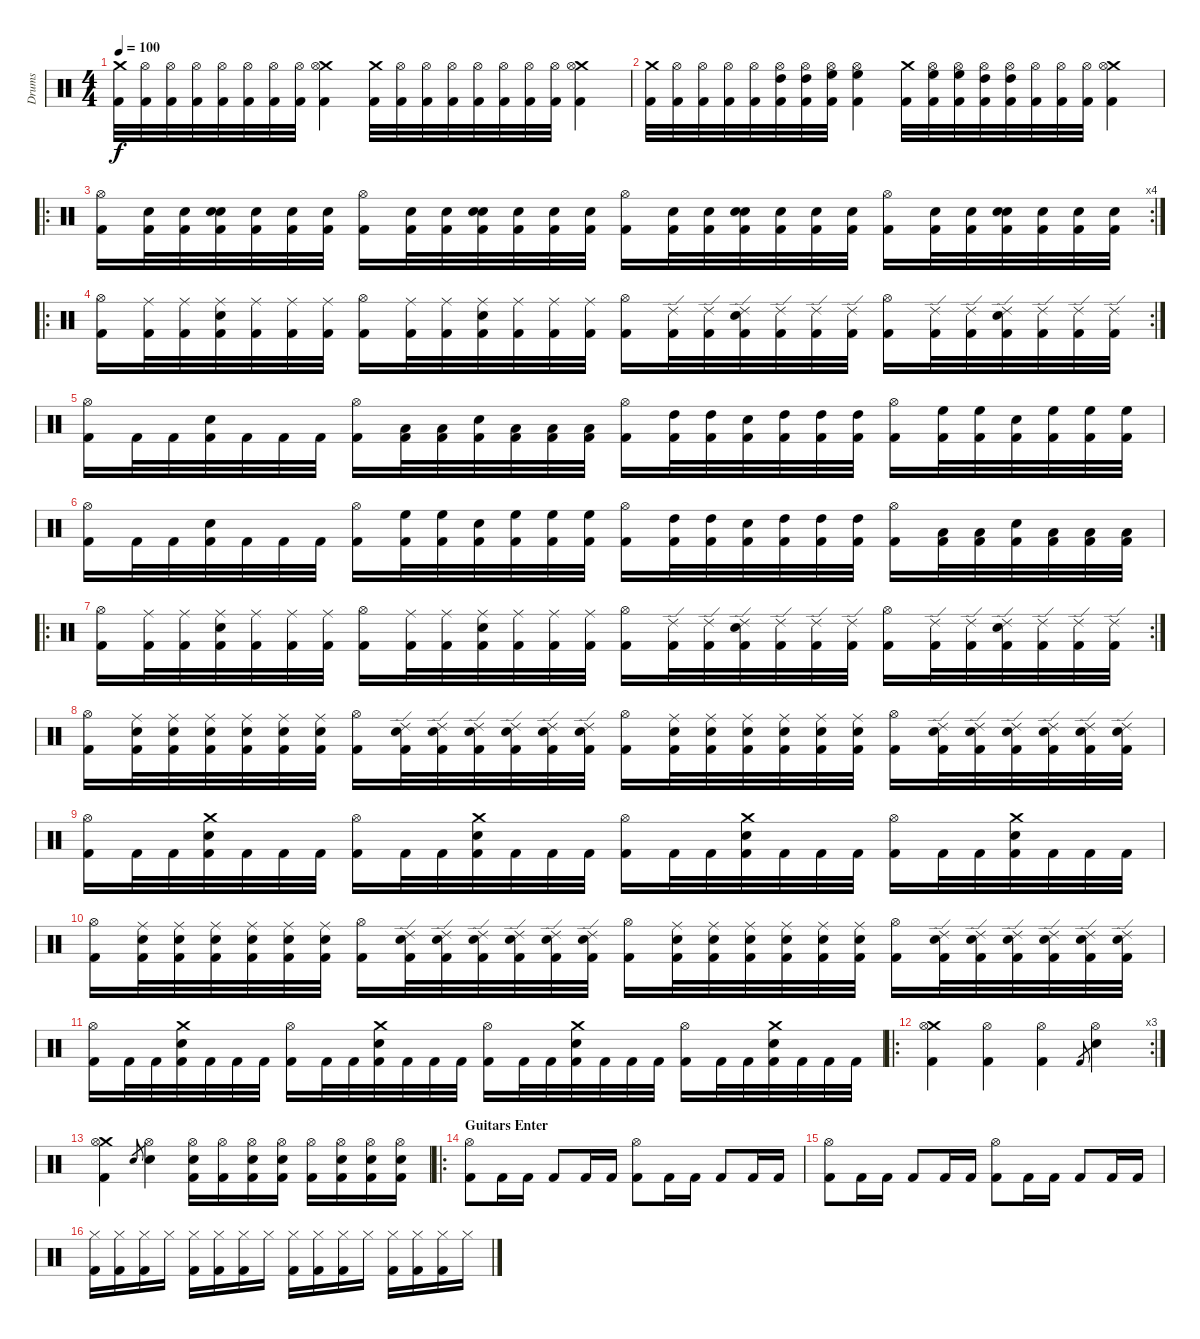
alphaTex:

\track ("Drums" "Drums") {instrument percussion}
\staff {score}
\articulation defaults
\ts (4 4)
\tempo 100
\clef neutral
\ks c
("Crash medium (hit)" "Kick (hit) 2").32{dy f} ("Hi-Hat (open)" "Kick (hit) 2").32 ("Hi-Hat (open)" "Kick (hit) 2").32 ("Hi-Hat (open)" "Kick (hit) 2").32 ("Hi-Hat (open)" "Kick (hit) 2").32 ("Hi-Hat (open)" "Kick (hit) 2").32 ("Hi-Hat (open)" "Kick (hit) 2").32 ("Hi-Hat (open)" "Kick (hit) 2").32 ("Crash medium (hit)" "Hi-Hat (open)" "Kick (hit) 2").4 ("Crash medium (hit)" "Kick (hit) 2").32 ("Hi-Hat (open)" "Kick (hit) 2").32 ("Hi-Hat (open)" "Kick (hit) 2").32 ("Hi-Hat (open)" "Kick (hit) 2").32 ("Hi-Hat (open)" "Kick (hit) 2").32 ("Hi-Hat (open)" "Kick (hit) 2").32 ("Hi-Hat (open)" "Kick (hit) 2").32 ("Hi-Hat (open)" "Kick (hit) 2").32 ("Crash medium (hit)" "Hi-Hat (open)" "Kick (hit) 2").4 |
("Crash medium (hit)" "Kick (hit) 2").32 ("Hi-Hat (open)" "Kick (hit) 2").32 ("Hi-Hat (open)" "Kick (hit) 2").32 ("Hi-Hat (open)" "Kick (hit) 2").32 ("Hi-Hat (open)" "Kick (hit) 2").32 ("Hi-Hat (open)" "High Tom (hit)" "Kick (hit) 2").32 ("Hi-Hat (open)" "High Tom (hit)" "Kick (hit) 2").32 ("Hi-Hat (open)" "High Floor Tom (hit)" "Kick (hit) 2").32 ("Hi-Hat (open)" "High Floor Tom (hit)" "Kick (hit) 2").4 ("Crash medium (hit)" "Kick (hit) 2").32 ("Hi-Hat (open)" "High Floor Tom (hit)" "Kick (hit) 2").32 ("Hi-Hat (open)" "High Floor Tom (hit)" "Kick (hit) 2").32 ("Hi-Hat (open)" "High Tom (hit)" "Kick (hit) 2").32 ("Hi-Hat (open)" "High Tom (hit)" "Kick (hit) 2").32 ("Hi-Hat (open)" "Kick (hit) 2").32 ("Hi-Hat (open)" "Kick (hit) 2").32 ("Hi-Hat (open)" "Kick (hit) 2").32 ("Crash medium (hit)" "Hi-Hat (open)" "Kick (hit) 2").4 |
\ro
\rc 4
("Hi-Hat (open)" "Kick (hit) 2").16 ("Electric Snare (hit)" "Kick (hit) 2").32 ("Electric Snare (hit)" "Kick (hit) 2").32 ("Electric Snare (hit)" "Snare (hit) 2" "Kick (hit) 2").32 ("Electric Snare (hit)" "Kick (hit) 2").32 ("Electric Snare (hit)" "Kick (hit) 2").32 ("Electric Snare (hit)" "Kick (hit) 2").32 ("Hi-Hat (open)" "Kick (hit) 2").16 ("Electric Snare (hit)" "Kick (hit) 2").32 ("Electric Snare (hit)" "Kick (hit) 2").32 ("Electric Snare (hit)" "Snare (hit) 2" "Kick (hit) 2").32 ("Electric Snare (hit)" "Kick (hit) 2").32 ("Electric Snare (hit)" "Kick (hit) 2").32 ("Electric Snare (hit)" "Kick (hit) 2").32 ("Hi-Hat (open)" "Kick (hit) 2").16 ("Electric Snare (hit)" "Kick (hit) 2").32 ("Electric Snare (hit)" "Kick (hit) 2").32 ("Electric Snare (hit)" "Snare (hit) 2" "Kick (hit) 2").32 ("Electric Snare (hit)" "Kick (hit) 2").32 ("Electric Snare (hit)" "Kick (hit) 2").32 ("Electric Snare (hit)" "Kick (hit) 2").32 ("Hi-Hat (open)" "Kick (hit) 2").16 ("Electric Snare (hit)" "Kick (hit) 2").32 ("Electric Snare (hit)" "Kick (hit) 2").32 ("Electric Snare (hit)" "Snare (hit) 2" "Kick (hit) 2").32 ("Electric Snare (hit)" "Kick (hit) 2").32 ("Electric Snare (hit)" "Kick (hit) 2").32 ("Electric Snare (hit)" "Kick (hit) 2").32 |
\ro
\rc 2
("Hi-Hat (open)" "Kick (hit) 2").16 ("Ride (middle)" "Kick (hit) 2").32 ("Ride (middle)" "Kick (hit) 2").32 ("Ride (middle)" "Snare (hit) 2" "Kick (hit) 2").32 ("Ride (middle)" "Kick (hit) 2").32 ("Ride (middle)" "Kick (hit) 2").32 ("Ride (middle)" "Kick (hit) 2").32 ("Hi-Hat (open)" "Kick (hit) 2").16 ("Ride (middle)" "Kick (hit) 2").32 ("Ride (middle)" "Kick (hit) 2").32 ("Ride (middle)" "Snare (hit) 2" "Kick (hit) 2").32 ("Ride (middle)" "Kick (hit) 2").32 ("Ride (middle)" "Kick (hit) 2").32 ("Ride (middle)" "Kick (hit) 2").32 ("Hi-Hat (open)" "Kick (hit) 2").16 ("Ride (edge) 2" "Kick (hit) 2").32 ("Ride (edge) 2" "Kick (hit) 2").32 ("Ride (edge) 2" "Snare (hit) 2" "Kick (hit) 2").32 ("Ride (edge) 2" "Kick (hit) 2").32 ("Ride (edge) 2" "Kick (hit) 2").32 ("Ride (edge) 2" "Kick (hit) 2").32 ("Hi-Hat (open)" "Kick (hit) 2").16 ("Ride (edge) 2" "Kick (hit) 2").32 ("Ride (edge) 2" "Kick (hit) 2").32 ("Ride (edge) 2" "Snare (hit) 2" "Kick (hit) 2").32 ("Ride (edge) 2" "Kick (hit) 2").32 ("Ride (edge) 2" "Kick (hit) 2").32 ("Ride (edge) 2" "Kick (hit) 2").32 |
("Hi-Hat (open)" "Kick (hit) 2").16 "Kick (hit) 2".32 "Kick (hit) 2".32 ("Snare (hit) 2" "Kick (hit) 2").32 "Kick (hit) 2".32 "Kick (hit) 2".32 "Kick (hit) 2".32 ("Hi-Hat (open)" "Kick (hit) 2").16 ("Low Tom (hit)" "Kick (hit) 2").32 ("Low Tom (hit)" "Kick (hit) 2").32 ("Snare (hit) 2" "Kick (hit) 2").32 ("Low Tom (hit)" "Kick (hit) 2").32 ("Low Tom (hit)" "Kick (hit) 2").32 ("Low Tom (hit)" "Kick (hit) 2").32 ("Hi-Hat (open)" "Kick (hit) 2").16 ("High Tom (hit)" "Kick (hit) 2").32 ("High Tom (hit)" "Kick (hit) 2").32 ("Snare (hit) 2" "Kick (hit) 2").32 ("High Tom (hit)" "Kick (hit) 2").32 ("High Tom (hit)" "Kick (hit) 2").32 ("High Tom (hit)" "Kick (hit) 2").32 ("Hi-Hat (open)" "Kick (hit) 2").16 ("High Floor Tom (hit)" "Kick (hit) 2").32 ("High Floor Tom (hit)" "Kick (hit) 2").32 ("Snare (hit) 2" "Kick (hit) 2").32 ("High Floor Tom (hit)" "Kick (hit) 2").32 ("High Floor Tom (hit)" "Kick (hit) 2").32 ("High Floor Tom (hit)" "Kick (hit) 2").32 |
("Hi-Hat (open)" "Kick (hit) 2").16 "Kick (hit) 2".32 "Kick (hit) 2".32 ("Snare (hit) 2" "Kick (hit) 2").32 "Kick (hit) 2".32 "Kick (hit) 2".32 "Kick (hit) 2".32 ("Hi-Hat (open)" "Kick (hit) 2").16 ("High Floor Tom (hit)" "Kick (hit) 2").32 ("High Floor Tom (hit)" "Kick (hit) 2").32 ("Snare (hit) 2" "Kick (hit) 2").32 ("High Floor Tom (hit)" "Kick (hit) 2").32 ("High Floor Tom (hit)" "Kick (hit) 2").32 ("High Floor Tom (hit)" "Kick (hit) 2").32 ("Hi-Hat (open)" "Kick (hit) 2").16 ("High Tom (hit)" "Kick (hit) 2").32 ("High Tom (hit)" "Kick (hit) 2").32 ("Snare (hit) 2" "Kick (hit) 2").32 ("High Tom (hit)" "Kick (hit) 2").32 ("High Tom (hit)" "Kick (hit) 2").32 ("High Tom (hit)" "Kick (hit) 2").32 ("Hi-Hat (open)" "Kick (hit) 2").16 ("Low Tom (hit)" "Kick (hit) 2").32 ("Low Tom (hit)" "Kick (hit) 2").32 ("Snare (hit) 2" "Kick (hit) 2").32 ("Low Tom (hit)" "Kick (hit) 2").32 ("Low Tom (hit)" "Kick (hit) 2").32 ("Low Tom (hit)" "Kick (hit) 2").32 |
\ro
\rc 2
("Hi-Hat (open)" "Kick (hit) 2").16 ("Ride (middle)" "Kick (hit) 2").32 ("Ride (middle)" "Kick (hit) 2").32 ("Ride (middle)" "Snare (hit) 2" "Kick (hit) 2").32 ("Ride (middle)" "Kick (hit) 2").32 ("Ride (middle)" "Kick (hit) 2").32 ("Ride (middle)" "Kick (hit) 2").32 ("Hi-Hat (open)" "Kick (hit) 2").16 ("Ride (middle)" "Kick (hit) 2").32 ("Ride (middle)" "Kick (hit) 2").32 ("Ride (middle)" "Snare (hit) 2" "Kick (hit) 2").32 ("Ride (middle)" "Kick (hit) 2").32 ("Ride (middle)" "Kick (hit) 2").32 ("Ride (middle)" "Kick (hit) 2").32 ("Hi-Hat (open)" "Kick (hit) 2").16 ("Ride (edge) 2" "Kick (hit) 2").32 ("Ride (edge) 2" "Kick (hit) 2").32 ("Ride (edge) 2" "Snare (hit) 2" "Kick (hit) 2").32 ("Ride (edge) 2" "Kick (hit) 2").32 ("Ride (edge) 2" "Kick (hit) 2").32 ("Ride (edge) 2" "Kick (hit) 2").32 ("Hi-Hat (open)" "Kick (hit) 2").16 ("Ride (edge) 2" "Kick (hit) 2").32 ("Ride (edge) 2" "Kick (hit) 2").32 ("Ride (edge) 2" "Snare (hit) 2" "Kick (hit) 2").32 ("Ride (edge) 2" "Kick (hit) 2").32 ("Ride (edge) 2" "Kick (hit) 2").32 ("Ride (edge) 2" "Kick (hit) 2").32 |
("Hi-Hat (open)" "Kick (hit) 2").16 ("Ride (middle)" "Electric Snare (hit)" "Kick (hit) 2").32 ("Ride (middle)" "Electric Snare (hit)" "Kick (hit) 2").32 ("Ride (middle)" "Snare (hit) 2" "Kick (hit) 2").32 ("Ride (middle)" "Electric Snare (hit)" "Kick (hit) 2").32 ("Ride (middle)" "Electric Snare (hit)" "Kick (hit) 2").32 ("Ride (middle)" "Electric Snare (hit)" "Kick (hit) 2").32 ("Hi-Hat (open)" "Kick (hit) 2").16 ("Ride (edge) 2" "Electric Snare (hit)" "Kick (hit) 2").32 ("Ride (edge) 2" "Electric Snare (hit)" "Kick (hit) 2").32 ("Ride (edge) 2" "Snare (hit) 2" "Kick (hit) 2").32 ("Ride (edge) 2" "Electric Snare (hit)" "Kick (hit) 2").32 ("Ride (edge) 2" "Electric Snare (hit)" "Kick (hit) 2").32 ("Ride (edge) 2" "Electric Snare (hit)" "Kick (hit) 2").32 ("Hi-Hat (open)" "Kick (hit) 2").16 ("Ride (middle)" "Electric Snare (hit)" "Kick (hit) 2").32 ("Ride (middle)" "Electric Snare (hit)" "Kick (hit) 2").32 ("Ride (middle)" "Snare (hit) 2" "Kick (hit) 2").32 ("Ride (middle)" "Electric Snare (hit)" "Kick (hit) 2").32 ("Ride (middle)" "Electric Snare (hit)" "Kick (hit) 2").32 ("Ride (middle)" "Electric Snare (hit)" "Kick (hit) 2").32 ("Hi-Hat (open)" "Kick (hit) 2").16 ("Ride (edge) 2" "Electric Snare (hit)" "Kick (hit) 2").32 ("Ride (edge) 2" "Electric Snare (hit)" "Kick (hit) 2").32 ("Ride (edge) 2" "Snare (hit) 2" "Kick (hit) 2").32 ("Ride (edge) 2" "Electric Snare (hit)" "Kick (hit) 2").32 ("Ride (edge) 2" "Electric Snare (hit)" "Kick (hit) 2").32 ("Ride (edge) 2" "Electric Snare (hit)" "Kick (hit) 2").32 |
("Hi-Hat (open)" "Kick (hit) 2").16 "Kick (hit) 2".32 "Kick (hit) 2".32 ("Crash medium (hit)" "Snare (hit) 2" "Kick (hit) 2").32 "Kick (hit) 2".32 "Kick (hit) 2".32 "Kick (hit) 2".32 ("Hi-Hat (open)" "Kick (hit) 2").16 "Kick (hit) 2".32 "Kick (hit) 2".32 ("Crash medium (hit)" "Snare (hit) 2" "Kick (hit) 2").32 "Kick (hit) 2".32 "Kick (hit) 2".32 "Kick (hit) 2".32 ("Hi-Hat (open)" "Kick (hit) 2").16 "Kick (hit) 2".32 "Kick (hit) 2".32 ("Crash medium (hit)" "Snare (hit) 2" "Kick (hit) 2").32 "Kick (hit) 2".32 "Kick (hit) 2".32 "Kick (hit) 2".32 ("Hi-Hat (open)" "Kick (hit) 2").16 "Kick (hit) 2".32 "Kick (hit) 2".32 ("Crash medium (hit)" "Snare (hit) 2" "Kick (hit) 2").32 "Kick (hit) 2".32 "Kick (hit) 2".32 "Kick (hit) 2".32 |
("Hi-Hat (open)" "Kick (hit) 2").16 ("Ride (middle)" "Electric Snare (hit)" "Kick (hit) 2").32 ("Ride (middle)" "Electric Snare (hit)" "Kick (hit) 2").32 ("Ride (middle)" "Snare (hit) 2" "Kick (hit) 2").32 ("Ride (middle)" "Electric Snare (hit)" "Kick (hit) 2").32 ("Ride (middle)" "Electric Snare (hit)" "Kick (hit) 2").32 ("Ride (middle)" "Electric Snare (hit)" "Kick (hit) 2").32 ("Hi-Hat (open)" "Kick (hit) 2").16 ("Ride (edge) 2" "Electric Snare (hit)" "Kick (hit) 2").32 ("Ride (edge) 2" "Electric Snare (hit)" "Kick (hit) 2").32 ("Ride (edge) 2" "Snare (hit) 2" "Kick (hit) 2").32 ("Ride (edge) 2" "Electric Snare (hit)" "Kick (hit) 2").32 ("Ride (edge) 2" "Electric Snare (hit)" "Kick (hit) 2").32 ("Ride (edge) 2" "Electric Snare (hit)" "Kick (hit) 2").32 ("Hi-Hat (open)" "Kick (hit) 2").16 ("Ride (middle)" "Electric Snare (hit)" "Kick (hit) 2").32 ("Ride (middle)" "Electric Snare (hit)" "Kick (hit) 2").32 ("Ride (middle)" "Snare (hit) 2" "Kick (hit) 2").32 ("Ride (middle)" "Electric Snare (hit)" "Kick (hit) 2").32 ("Ride (middle)" "Electric Snare (hit)" "Kick (hit) 2").32 ("Ride (middle)" "Electric Snare (hit)" "Kick (hit) 2").32 ("Hi-Hat (open)" "Kick (hit) 2").16 ("Ride (edge) 2" "Electric Snare (hit)" "Kick (hit) 2").32 ("Ride (edge) 2" "Electric Snare (hit)" "Kick (hit) 2").32 ("Ride (edge) 2" "Snare (hit) 2" "Kick (hit) 2").32 ("Ride (edge) 2" "Electric Snare (hit)" "Kick (hit) 2").32 ("Ride (edge) 2" "Electric Snare (hit)" "Kick (hit) 2").32 ("Ride (edge) 2" "Electric Snare (hit)" "Kick (hit) 2").32 |
("Hi-Hat (open)" "Kick (hit) 2").16 "Kick (hit) 2".32 "Kick (hit) 2".32 ("Crash medium (hit)" "Snare (hit) 2" "Kick (hit) 2").32 "Kick (hit) 2".32 "Kick (hit) 2".32 "Kick (hit) 2".32 ("Hi-Hat (open)" "Kick (hit) 2").16 "Kick (hit) 2".32 "Kick (hit) 2".32 ("Crash medium (hit)" "Snare (hit) 2" "Kick (hit) 2").32 "Kick (hit) 2".32 "Kick (hit) 2".32 "Kick (hit) 2".32 ("Hi-Hat (open)" "Kick (hit) 2").16 "Kick (hit) 2".32 "Kick (hit) 2".32 ("Crash medium (hit)" "Snare (hit) 2" "Kick (hit) 2").32 "Kick (hit) 2".32 "Kick (hit) 2".32 "Kick (hit) 2".32 ("Hi-Hat (open)" "Kick (hit) 2").16 "Kick (hit) 2".32 "Kick (hit) 2".32 ("Crash medium (hit)" "Snare (hit) 2" "Kick (hit) 2").32 "Kick (hit) 2".32 "Kick (hit) 2".32 "Kick (hit) 2".32 |
\ro
\rc 3
("Crash medium (hit)" "Hi-Hat (open)" "Kick (hit) 2").4 ("Hi-Hat (open)" "Kick (hit) 2").4 ("Hi-Hat (open)" "Kick (hit) 2").4 "Kick (hit) 2".8{gr} ("Hi-Hat (open)" "Electric Snare (hit)").4 |
("Crash medium (hit)" "Hi-Hat (open)" "Kick (hit) 2").4 "Electric Snare (hit)".8{gr} ("Hi-Hat (open)" "Electric Snare (hit)").4 ("Hi-Hat (open)" "Snare (hit) 2" "Kick (hit) 2").16 ("Hi-Hat (open)" "Kick (hit) 2").16 ("Hi-Hat (open)" "Snare (hit) 2" "Kick (hit) 2").16 ("Hi-Hat (open)" "Snare (hit) 2" "Kick (hit) 2").16 ("Hi-Hat (open)" "Kick (hit) 2").16 ("Hi-Hat (open)" "Snare (hit) 2" "Kick (hit) 2").16 ("Hi-Hat (open)" "Snare (hit) 2" "Kick (hit) 2").16 ("Hi-Hat (open)" "Snare (hit) 2" "Kick (hit) 2").16 |
\ro
\section ("" "Guitars Enter")
("Hi-Hat (open)" "Kick (hit) 2").8 "Kick (hit) 2".16 "Kick (hit) 2".16 "Kick (hit) 2".8 "Kick (hit) 2".16 "Kick (hit) 2".16 ("Hi-Hat (open)" "Kick (hit) 2").8 "Kick (hit) 2".16 "Kick (hit) 2".16 "Kick (hit) 2".8 "Kick (hit) 2".16 "Kick (hit) 2".16 |
("Hi-Hat (open)" "Kick (hit) 2").8 "Kick (hit) 2".16 "Kick (hit) 2".16 "Kick (hit) 2".8 "Kick (hit) 2".16 "Kick (hit) 2".16 ("Hi-Hat (open)" "Kick (hit) 2").8 "Kick (hit) 2".16 "Kick (hit) 2".16 "Kick (hit) 2".8 "Kick (hit) 2".16 "Kick (hit) 2".16 |
("Hi-Hat (closed)" "Kick (hit) 2").16 ("Hi-Hat (closed)" "Kick (hit) 2").16 ("Hi-Hat (closed)" "Kick (hit) 2").16 "Hi-Hat (closed)".16 ("Hi-Hat (closed)" "Kick (hit) 2").16 ("Hi-Hat (closed)" "Kick (hit) 2").16 ("Hi-Hat (closed)" "Kick (hit) 2").16 "Hi-Hat (closed)".16 ("Hi-Hat (closed)" "Kick (hit) 2").16 ("Hi-Hat (closed)" "Kick (hit) 2").16 ("Hi-Hat (closed)" "Kick (hit) 2").16 "Hi-Hat (closed)".16 ("Hi-Hat (closed)" "Kick (hit) 2").16 ("Hi-Hat (closed)" "Kick (hit) 2").16 ("Hi-Hat (closed)" "Kick (hit) 2").16 "Hi-Hat (closed)".16
